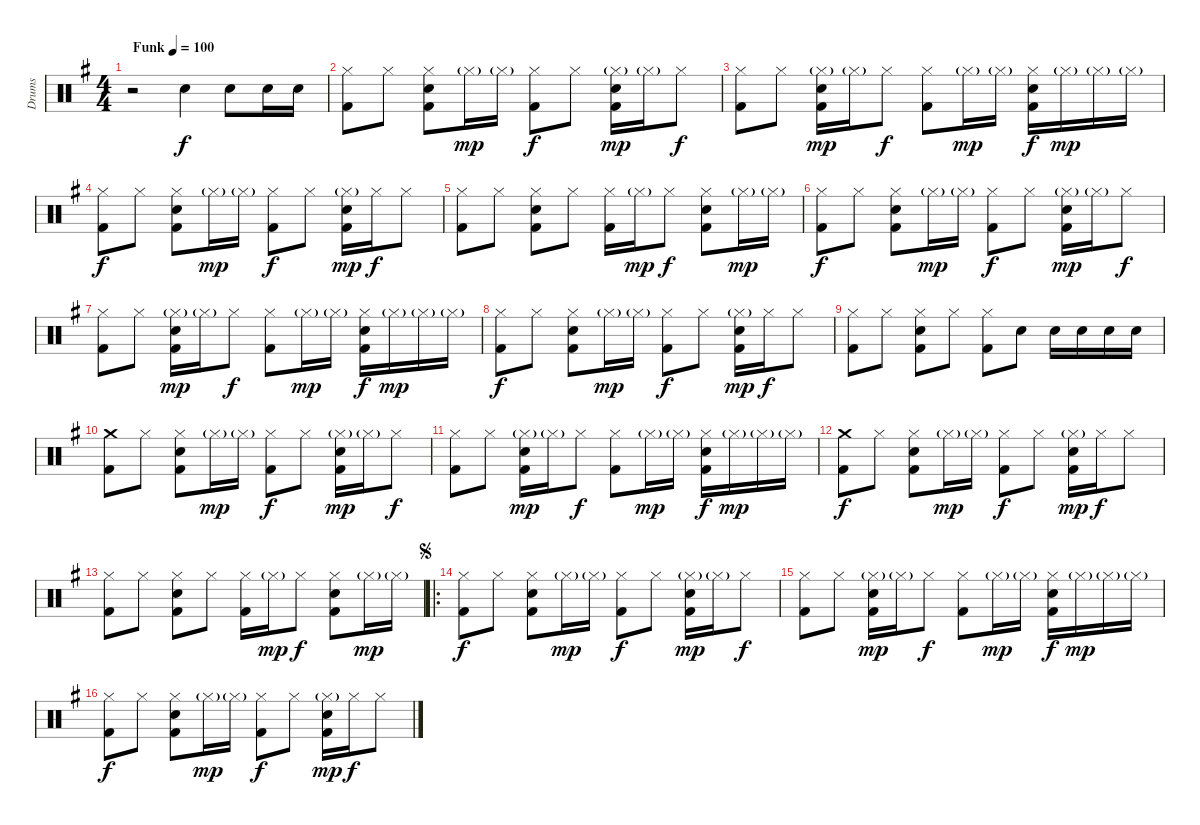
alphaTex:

\track ("Drums" "Drums") {instrument percussion}
\staff {score}
\articulation defaults
\ts (4 4)
\tempo (100 "Funk")
\clef neutral
\ks eminor
r.2{dy f} "Snare (hit) 2".4 "Snare (hit) 2".8 "Snare (hit) 2".16 "Snare (hit) 2".16 |
("Hi-Hat (closed)" "Kick (hit) 2").8 "Hi-Hat (closed)".8 ("Hi-Hat (closed)" "Snare (hit) 2" "Kick (hit) 2").8 "Hi-Hat (closed)"{g}.16{dy mp} "Hi-Hat (closed)"{g}.16 ("Hi-Hat (closed)" "Kick (hit) 2").8{dy f} "Hi-Hat (closed)".8 ("Hi-Hat (closed)"{g} "Snare (hit) 2" "Kick (hit) 2").16{dy mp} "Hi-Hat (closed)"{g}.16 "Hi-Hat (closed)".8{dy f} |
("Hi-Hat (closed)" "Kick (hit) 2").8 "Hi-Hat (closed)".8 ("Hi-Hat (closed)"{g} "Snare (hit) 2" "Kick (hit) 2").16{dy mp} "Hi-Hat (closed)"{g}.16 "Hi-Hat (closed)".8{dy f} ("Hi-Hat (closed)" "Kick (hit) 2").8 "Hi-Hat (closed)"{g}.16{dy mp} "Hi-Hat (closed)"{g}.16 ("Hi-Hat (closed)" "Snare (hit) 2" "Kick (hit) 2").16{dy f} "Hi-Hat (closed)"{g}.16{dy mp} "Hi-Hat (closed)"{g}.16 "Hi-Hat (closed)"{g}.16 |
("Hi-Hat (closed)" "Kick (hit) 2").8{dy f} "Hi-Hat (closed)".8 ("Hi-Hat (closed)" "Snare (hit) 2" "Kick (hit) 2").8 "Hi-Hat (closed)"{g}.16{dy mp} "Hi-Hat (closed)"{g}.16 ("Hi-Hat (closed)" "Kick (hit) 2").8{dy f} "Hi-Hat (closed)".8 ("Hi-Hat (closed)"{g} "Snare (hit) 2" "Kick (hit) 2").16{dy mp} "Hi-Hat (closed)".16{dy f} "Hi-Hat (closed)".8 |
("Hi-Hat (closed)" "Kick (hit) 2").8 "Hi-Hat (closed)".8 ("Hi-Hat (closed)" "Snare (hit) 2" "Kick (hit) 2").8 "Hi-Hat (closed)".8 ("Hi-Hat (closed)" "Kick (hit) 2").16 "Hi-Hat (closed)"{g}.16{dy mp} "Hi-Hat (closed)".8{dy f} ("Hi-Hat (closed)" "Snare (hit) 2" "Kick (hit) 2").8 "Hi-Hat (closed)"{g}.16{dy mp} "Hi-Hat (closed)"{g}.16 |
("Hi-Hat (closed)" "Kick (hit) 2").8{dy f} "Hi-Hat (closed)".8 ("Hi-Hat (closed)" "Snare (hit) 2" "Kick (hit) 2").8 "Hi-Hat (closed)"{g}.16{dy mp} "Hi-Hat (closed)"{g}.16 ("Hi-Hat (closed)" "Kick (hit) 2").8{dy f} "Hi-Hat (closed)".8 ("Hi-Hat (closed)"{g} "Snare (hit) 2" "Kick (hit) 2").16{dy mp} "Hi-Hat (closed)"{g}.16 "Hi-Hat (closed)".8{dy f} |
("Hi-Hat (closed)" "Kick (hit) 2").8 "Hi-Hat (closed)".8 ("Hi-Hat (closed)"{g} "Snare (hit) 2" "Kick (hit) 2").16{dy mp} "Hi-Hat (closed)"{g}.16 "Hi-Hat (closed)".8{dy f} ("Hi-Hat (closed)" "Kick (hit) 2").8 "Hi-Hat (closed)"{g}.16{dy mp} "Hi-Hat (closed)"{g}.16 ("Hi-Hat (closed)" "Snare (hit) 2" "Kick (hit) 2").16{dy f} "Hi-Hat (closed)"{g}.16{dy mp} "Hi-Hat (closed)"{g}.16 "Hi-Hat (closed)"{g}.16 |
("Hi-Hat (closed)" "Kick (hit) 2").8{dy f} "Hi-Hat (closed)".8 ("Hi-Hat (closed)" "Snare (hit) 2" "Kick (hit) 2").8 "Hi-Hat (closed)"{g}.16{dy mp} "Hi-Hat (closed)"{g}.16 ("Hi-Hat (closed)" "Kick (hit) 2").8{dy f} "Hi-Hat (closed)".8 ("Hi-Hat (closed)"{g} "Snare (hit) 2" "Kick (hit) 2").16{dy mp} "Hi-Hat (closed)".16{dy f} "Hi-Hat (closed)".8 |
("Hi-Hat (closed)" "Kick (hit) 2").8 "Hi-Hat (closed)".8 ("Hi-Hat (closed)" "Snare (hit) 2" "Kick (hit) 2").8 "Hi-Hat (closed)".8 ("Hi-Hat (closed)" "Kick (hit) 2").8 "Snare (hit) 2".8 "Snare (hit) 2".16 "Snare (hit) 2".16 "Snare (hit) 2".16 "Snare (hit) 2".16 |
("Crash medium (hit)" "Kick (hit) 2").8 "Hi-Hat (closed)".8 ("Hi-Hat (closed)" "Snare (hit) 2" "Kick (hit) 2").8 "Hi-Hat (closed)"{g}.16{dy mp} "Hi-Hat (closed)"{g}.16 ("Hi-Hat (closed)" "Kick (hit) 2").8{dy f} "Hi-Hat (closed)".8 ("Hi-Hat (closed)"{g} "Snare (hit) 2" "Kick (hit) 2").16{dy mp} "Hi-Hat (closed)"{g}.16 "Hi-Hat (closed)".8{dy f} |
("Hi-Hat (closed)" "Kick (hit) 2").8 "Hi-Hat (closed)".8 ("Hi-Hat (closed)"{g} "Snare (hit) 2" "Kick (hit) 2").16{dy mp} "Hi-Hat (closed)"{g}.16 "Hi-Hat (closed)".8{dy f} ("Hi-Hat (closed)" "Kick (hit) 2").8 "Hi-Hat (closed)"{g}.16{dy mp} "Hi-Hat (closed)"{g}.16 ("Hi-Hat (closed)" "Snare (hit) 2" "Kick (hit) 2").16{dy f} "Hi-Hat (closed)"{g}.16{dy mp} "Hi-Hat (closed)"{g}.16 "Hi-Hat (closed)"{g}.16 |
("Crash medium (hit)" "Kick (hit) 2").8{dy f} "Hi-Hat (closed)".8 ("Hi-Hat (closed)" "Snare (hit) 2" "Kick (hit) 2").8 "Hi-Hat (closed)"{g}.16{dy mp} "Hi-Hat (closed)"{g}.16 ("Hi-Hat (closed)" "Kick (hit) 2").8{dy f} "Hi-Hat (closed)".8 ("Hi-Hat (closed)"{g} "Snare (hit) 2" "Kick (hit) 2").16{dy mp} "Hi-Hat (closed)".16{dy f} "Hi-Hat (closed)".8 |
("Hi-Hat (closed)" "Kick (hit) 2").8 "Hi-Hat (closed)".8 ("Hi-Hat (closed)" "Snare (hit) 2" "Kick (hit) 2").8 "Hi-Hat (closed)".8 ("Hi-Hat (closed)" "Kick (hit) 2").16 "Hi-Hat (closed)"{g}.16{dy mp} "Hi-Hat (closed)".8{dy f} ("Hi-Hat (closed)" "Snare (hit) 2" "Kick (hit) 2").8 "Hi-Hat (closed)"{g}.16{dy mp} "Hi-Hat (closed)"{g}.16 |
\ro
\jump segno
("Hi-Hat (closed)" "Kick (hit) 2").8{dy f} "Hi-Hat (closed)".8 ("Hi-Hat (closed)" "Snare (hit) 2" "Kick (hit) 2").8 "Hi-Hat (closed)"{g}.16{dy mp} "Hi-Hat (closed)"{g}.16 ("Hi-Hat (closed)" "Kick (hit) 2").8{dy f} "Hi-Hat (closed)".8 ("Hi-Hat (closed)"{g} "Snare (hit) 2" "Kick (hit) 2").16{dy mp} "Hi-Hat (closed)"{g}.16 "Hi-Hat (closed)".8{dy f} |
("Hi-Hat (closed)" "Kick (hit) 2").8 "Hi-Hat (closed)".8 ("Hi-Hat (closed)"{g} "Snare (hit) 2" "Kick (hit) 2").16{dy mp} "Hi-Hat (closed)"{g}.16 "Hi-Hat (closed)".8{dy f} ("Hi-Hat (closed)" "Kick (hit) 2").8 "Hi-Hat (closed)"{g}.16{dy mp} "Hi-Hat (closed)"{g}.16 ("Hi-Hat (closed)" "Snare (hit) 2" "Kick (hit) 2").16{dy f} "Hi-Hat (closed)"{g}.16{dy mp} "Hi-Hat (closed)"{g}.16 "Hi-Hat (closed)"{g}.16 |
("Hi-Hat (closed)" "Kick (hit) 2").8{dy f} "Hi-Hat (closed)".8 ("Hi-Hat (closed)" "Snare (hit) 2" "Kick (hit) 2").8 "Hi-Hat (closed)"{g}.16{dy mp} "Hi-Hat (closed)"{g}.16 ("Hi-Hat (closed)" "Kick (hit) 2").8{dy f} "Hi-Hat (closed)".8 ("Hi-Hat (closed)"{g} "Snare (hit) 2" "Kick (hit) 2").16{dy mp} "Hi-Hat (closed)".16{dy f} "Hi-Hat (closed)".8
